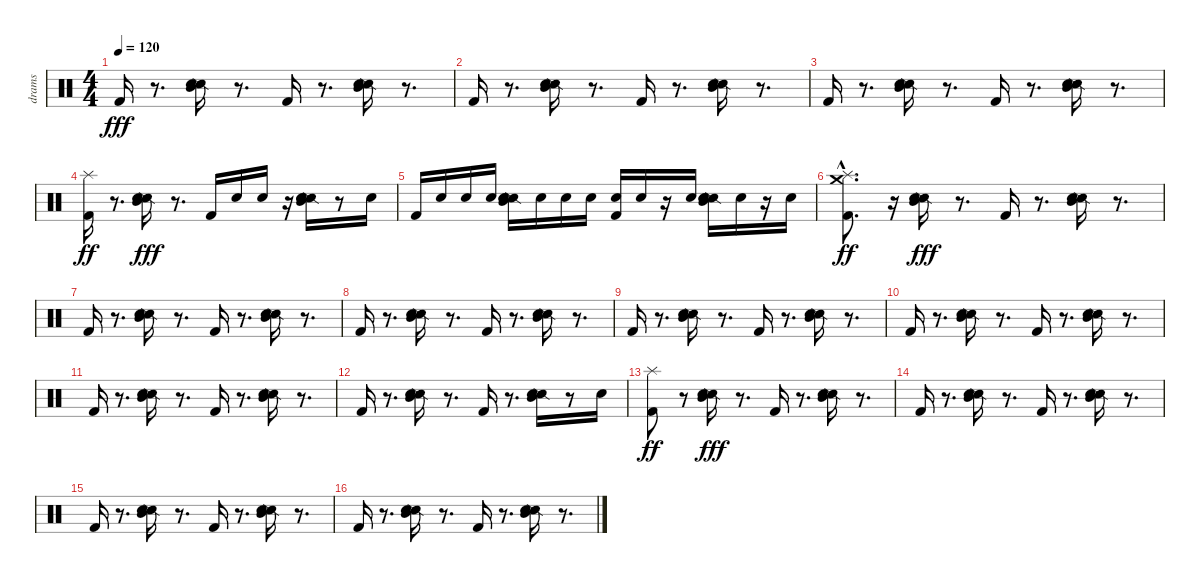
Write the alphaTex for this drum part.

\track ("drams" "drams") {instrument percussion}
\staff {score}
\articulation defaults
\ts (4 4)
\tempo 120
\clef neutral
\ks c "Kick (hit) 2".16{dy fff}
r.8{d} ("Snare (side stick) 2" "Snare (hit) 2" "Mid Tom (hit)").16 r.8{d} "Kick (hit) 2".16 r.8{d} ("Snare (side stick) 2" "Snare (hit) 2" "Mid Tom (hit)").16 r.8{d} |
"Kick (hit) 2".16 r.8{d} ("Snare (side stick) 2" "Snare (hit) 2" "Mid Tom (hit)").16 r.8{d} "Kick (hit) 2".16 r.8{d} ("Snare (side stick) 2" "Snare (hit) 2" "Mid Tom (hit)").16 r.8{d} |
"Kick (hit) 2".16 r.8{d} ("Snare (side stick) 2" "Snare (hit) 2" "Mid Tom (hit)").16 r.8{d} "Kick (hit) 2".16 r.8{d} ("Snare (side stick) 2" "Snare (hit) 2" "Mid Tom (hit)").16 r.8{d} |
("Kick (hit) 2" "Splash (hit)").16{dy ff} r.8{d} ("Snare (side stick) 2" "Snare (hit) 2" "Mid Tom (hit)").16{dy fff} r.8{d} "Kick (hit) 2".16 "Electric Snare (hit)".16 "Electric Snare (hit)".16 r.16 ("Snare (side stick) 2" "Snare (hit) 2" "Electric Snare (hit)" "Mid Tom (hit)").16 r.8 "Electric Snare (hit)".16 |
"Kick (hit) 2".16 "Electric Snare (hit)".16 "Electric Snare (hit)".16 "Electric Snare (hit)".16 ("Snare (side stick) 2" "Snare (hit) 2" "Electric Snare (hit)" "Mid Tom (hit)").16 "Electric Snare (hit)".16 "Electric Snare (hit)".16 "Electric Snare (hit)".16 ("Kick (hit) 2" "Electric Snare (hit)").16 "Electric Snare (hit)".16 r.16 "Electric Snare (hit)".16 ("Snare (side stick) 2" "Snare (hit) 2" "Electric Snare (hit)" "Mid Tom (hit)").16 "Electric Snare (hit)".16 r.16 "Electric Snare (hit)".16 |
("Kick (hit) 2" "Splash (hit)"{hac} "Crash medium (hit)"{hac}).8{d dy ff} r.16 ("Snare (side stick) 2" "Snare (hit) 2" "Mid Tom (hit)").16{dy fff} r.8{d} "Kick (hit) 2".16 r.8{d} ("Snare (side stick) 2" "Snare (hit) 2" "Mid Tom (hit)").16 r.8{d} |
"Kick (hit) 2".16 r.8{d} ("Snare (side stick) 2" "Snare (hit) 2" "Mid Tom (hit)").16 r.8{d} "Kick (hit) 2".16 r.8{d} ("Snare (side stick) 2" "Snare (hit) 2" "Mid Tom (hit)").16 r.8{d} |
"Kick (hit) 2".16 r.8{d} ("Snare (side stick) 2" "Snare (hit) 2" "Mid Tom (hit)").16 r.8{d} "Kick (hit) 2".16 r.8{d} ("Snare (side stick) 2" "Snare (hit) 2" "Mid Tom (hit)").16 r.8{d} |
"Kick (hit) 2".16 r.8{d} ("Snare (side stick) 2" "Snare (hit) 2" "Mid Tom (hit)").16 r.8{d} "Kick (hit) 2".16 r.8{d} ("Snare (side stick) 2" "Snare (hit) 2" "Mid Tom (hit)").16 r.8{d} |
"Kick (hit) 2".16 r.8{d} ("Snare (side stick) 2" "Snare (hit) 2" "Mid Tom (hit)").16 r.8{d} "Kick (hit) 2".16 r.8{d} ("Snare (side stick) 2" "Snare (hit) 2" "Mid Tom (hit)").16 r.8{d} |
"Kick (hit) 2".16 r.8{d} ("Snare (side stick) 2" "Snare (hit) 2" "Mid Tom (hit)").16 r.8{d} "Kick (hit) 2".16 r.8{d} ("Snare (side stick) 2" "Snare (hit) 2" "Mid Tom (hit)").16 r.8{d} |
"Kick (hit) 2".16 r.8{d} ("Snare (side stick) 2" "Snare (hit) 2" "Mid Tom (hit)").16 r.8{d} "Kick (hit) 2".16 r.8{d} ("Snare (side stick) 2" "Snare (hit) 2" "Mid Tom (hit)").16 r.8 "Snare (hit) 2".16 |
("Kick (hit) 2" "Splash (hit)").8{dy ff} r.8 ("Snare (side stick) 2" "Snare (hit) 2" "Mid Tom (hit)").16{dy fff} r.8{d} "Kick (hit) 2".16 r.8{d} ("Snare (side stick) 2" "Snare (hit) 2" "Mid Tom (hit)").16 r.8{d} |
"Kick (hit) 2".16 r.8{d} ("Snare (side stick) 2" "Snare (hit) 2" "Mid Tom (hit)").16 r.8{d} "Kick (hit) 2".16 r.8{d} ("Snare (side stick) 2" "Snare (hit) 2" "Mid Tom (hit)").16 r.8{d} |
"Kick (hit) 2".16 r.8{d} ("Snare (side stick) 2" "Snare (hit) 2" "Mid Tom (hit)").16 r.8{d} "Kick (hit) 2".16 r.8{d} ("Snare (side stick) 2" "Snare (hit) 2" "Mid Tom (hit)").16 r.8{d} |
"Kick (hit) 2".16 r.8{d} ("Snare (side stick) 2" "Snare (hit) 2" "Mid Tom (hit)").16 r.8{d} "Kick (hit) 2".16 r.8{d} ("Snare (side stick) 2" "Snare (hit) 2" "Mid Tom (hit)").16 r.8{d}
